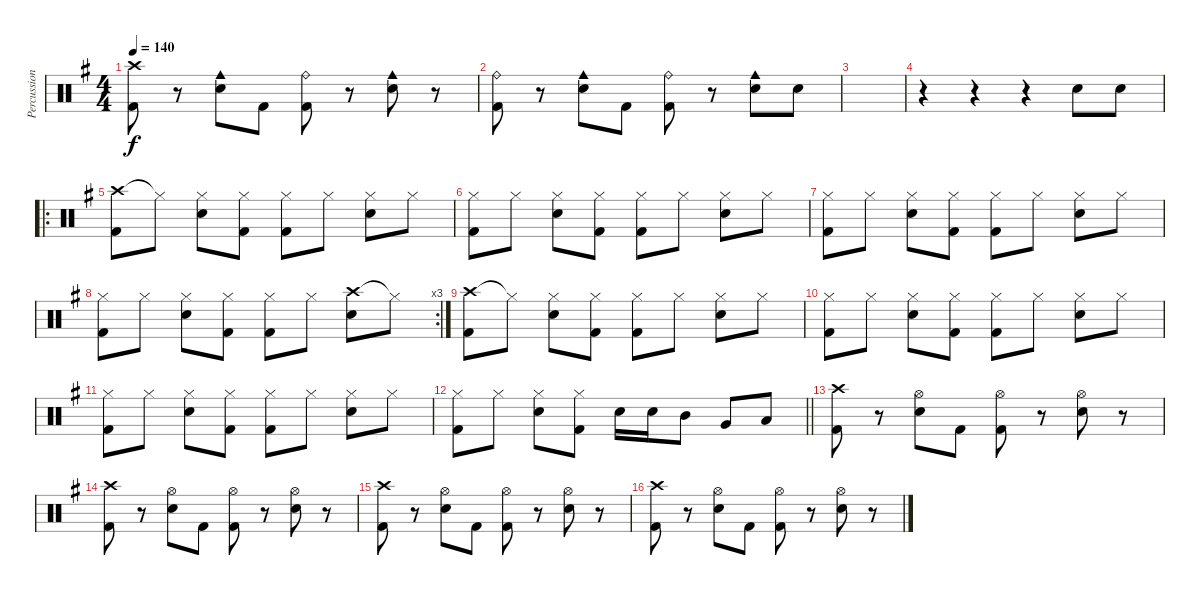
\track ("Percussion" "Percussion") {instrument percussion}
\staff {score}
\articulation defaults
\ts (4 4)
\tempo 140
\clef neutral
\ks g
("Crash high (hit)" "Kick (hit) 2").8{dy f} r.8 ("Cowbell medium (hit)" "Snare (hit) 2").8 "Kick (hit) 2".8 ("Ride (bell)" "Kick (hit) 2").8 r.8 ("Cowbell medium (hit)" "Snare (hit) 2").8 r.8 |
("Ride (bell)" "Kick (hit) 2").8 r.8 ("Cowbell medium (hit)" "Snare (hit) 2").8 "Kick (hit) 2".8 ("Ride (bell)" "Kick (hit) 2").8 r.8 ("Cowbell medium (hit)" "Snare (hit) 2").8 "Snare (hit) 2".8 |
|
r.4 r.4 r.4 "Snare (hit) 2".8 "Snare (hit) 2".8 |
\ro
("Crash high (hit)" "Kick (hit) 2").8 "Hi-Hat (closed)"{t}.8 ("Hi-Hat (closed)" "Snare (hit) 2").8 ("Hi-Hat (closed)" "Kick (hit) 2").8 ("Hi-Hat (closed)" "Kick (hit) 2").8 "Hi-Hat (closed)".8 ("Hi-Hat (closed)" "Snare (hit) 2").8 "Hi-Hat (closed)".8 |
("Hi-Hat (closed)" "Kick (hit) 2").8 "Hi-Hat (closed)".8 ("Hi-Hat (closed)" "Snare (hit) 2").8 ("Hi-Hat (closed)" "Kick (hit) 2").8 ("Hi-Hat (closed)" "Kick (hit) 2").8 "Hi-Hat (closed)".8 ("Hi-Hat (closed)" "Snare (hit) 2").8 "Hi-Hat (closed)".8 |
("Hi-Hat (closed)" "Kick (hit) 2").8 "Hi-Hat (closed)".8 ("Hi-Hat (closed)" "Snare (hit) 2").8 ("Hi-Hat (closed)" "Kick (hit) 2").8 ("Hi-Hat (closed)" "Kick (hit) 2").8 "Hi-Hat (closed)".8 ("Hi-Hat (closed)" "Snare (hit) 2").8 "Hi-Hat (closed)".8 |
\rc 3
("Hi-Hat (closed)" "Kick (hit) 2").8 "Hi-Hat (closed)".8 ("Hi-Hat (closed)" "Snare (hit) 2").8 ("Hi-Hat (closed)" "Kick (hit) 2").8 ("Hi-Hat (closed)" "Kick (hit) 2").8 "Hi-Hat (closed)".8 ("Crash high (hit)" "Snare (hit) 2").8 "Hi-Hat (closed)"{t}.8 |
("Crash high (hit)" "Kick (hit) 2").8 "Hi-Hat (closed)"{t}.8 ("Hi-Hat (closed)" "Snare (hit) 2").8 ("Hi-Hat (closed)" "Kick (hit) 2").8 ("Hi-Hat (closed)" "Kick (hit) 2").8 "Hi-Hat (closed)".8 ("Hi-Hat (closed)" "Snare (hit) 2").8 "Hi-Hat (closed)".8 |
("Hi-Hat (closed)" "Kick (hit) 2").8 "Hi-Hat (closed)".8 ("Hi-Hat (closed)" "Snare (hit) 2").8 ("Hi-Hat (closed)" "Kick (hit) 2").8 ("Hi-Hat (closed)" "Kick (hit) 2").8 "Hi-Hat (closed)".8 ("Hi-Hat (closed)" "Snare (hit) 2").8 "Hi-Hat (closed)".8 |
("Hi-Hat (closed)" "Kick (hit) 2").8 "Hi-Hat (closed)".8 ("Hi-Hat (closed)" "Snare (hit) 2").8 ("Hi-Hat (closed)" "Kick (hit) 2").8 ("Hi-Hat (closed)" "Kick (hit) 2").8 "Hi-Hat (closed)".8 ("Hi-Hat (closed)" "Snare (hit) 2").8 "Hi-Hat (closed)".8 |
\barLineRight lightlight
("Hi-Hat (closed)" "Kick (hit) 2").8 "Hi-Hat (closed)".8 ("Hi-Hat (closed)" "Snare (hit) 2").8 ("Hi-Hat (closed)" "Kick (hit) 2").8 "Snare (hit) 2".16 "Snare (hit) 2".16 "Mid Tom (hit)".8 "Very Low Tom (hit)".8 "Low Floor Tom (hit)".8 |
("Crash high (hit)" "Kick (hit) 2").8 r.8 ("Hi-Hat (open)" "Snare (hit) 2").8 "Kick (hit) 2".8 ("Hi-Hat (open)" "Kick (hit) 2").8 r.8 ("Hi-Hat (open)" "Snare (hit) 2").8 r.8 |
("Crash high (hit)" "Kick (hit) 2").8 r.8 ("Hi-Hat (open)" "Snare (hit) 2").8 "Kick (hit) 2".8 ("Hi-Hat (open)" "Kick (hit) 2").8 r.8 ("Hi-Hat (open)" "Snare (hit) 2").8 r.8 |
("Crash high (hit)" "Kick (hit) 2").8 r.8 ("Hi-Hat (open)" "Snare (hit) 2").8 "Kick (hit) 2".8 ("Hi-Hat (open)" "Kick (hit) 2").8 r.8 ("Hi-Hat (open)" "Snare (hit) 2").8 r.8 |
("Crash high (hit)" "Kick (hit) 2").8 r.8 ("Hi-Hat (open)" "Snare (hit) 2").8 "Kick (hit) 2".8 ("Hi-Hat (open)" "Kick (hit) 2").8 r.8 ("Hi-Hat (open)" "Snare (hit) 2").8 r.8
